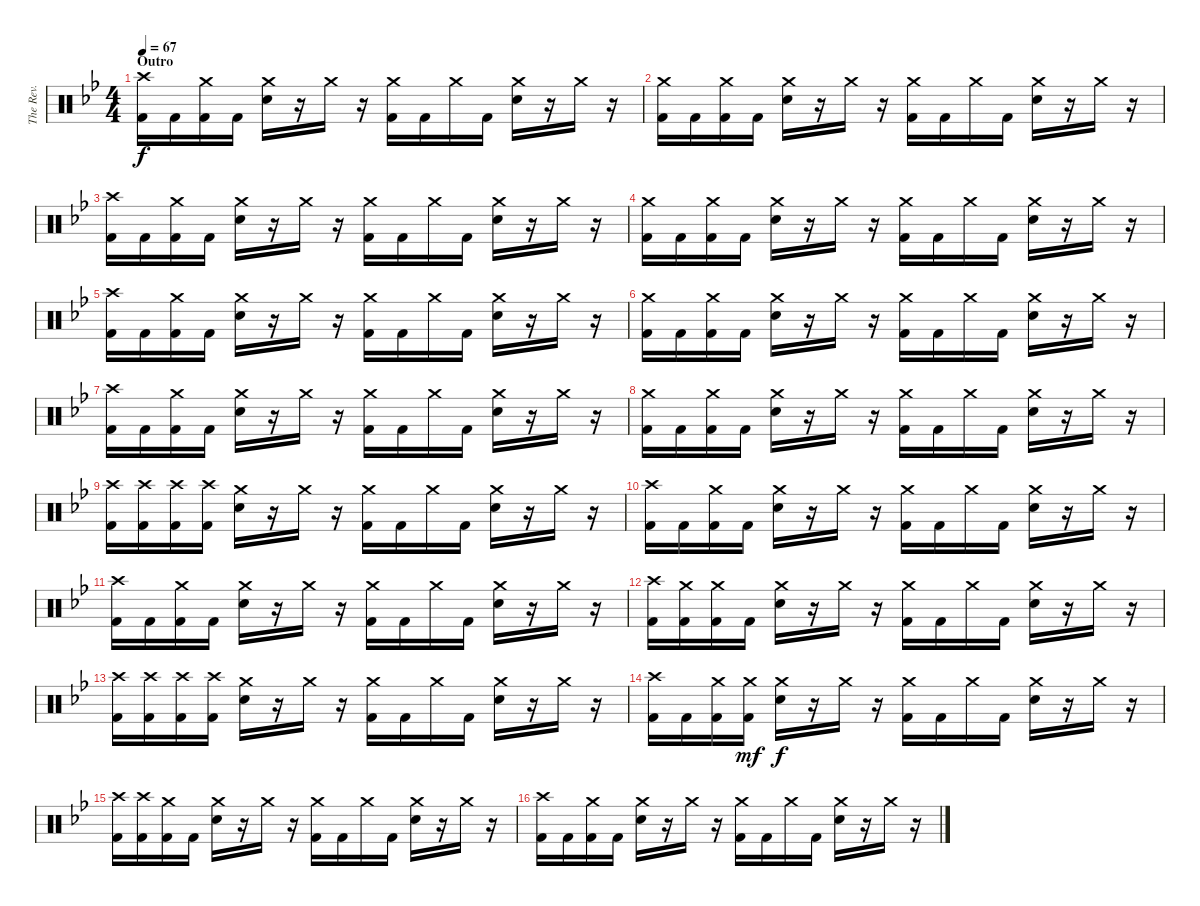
\track ("The Rev." "The Rev.") {instrument percussion}
\staff {score}
\articulation defaults
\ts (4 4)
\section ("" "Outro")
\tempo 67
\clef neutral
\ks bb
("Crash high (hit)" "Kick (hit) 2").16{dy f} "Kick (hit) 2".16 ("Crash medium (hit)" "Kick (hit) 2").16 "Kick (hit) 2".16 ("Crash medium (hit)" "Electric Snare (hit)").16 r.16 "Crash medium (hit)".16 r.16 ("Crash medium (hit)" "Kick (hit) 2").16 "Kick (hit) 2".16 "Crash medium (hit)".16 "Kick (hit) 2".16 ("Crash medium (hit)" "Electric Snare (hit)").16 r.16 "Crash medium (hit)".16 r.16 |
("Crash medium (hit)" "Kick (hit) 2").16 "Kick (hit) 2".16 ("Crash medium (hit)" "Kick (hit) 2").16 "Kick (hit) 2".16 ("Crash medium (hit)" "Electric Snare (hit)").16 r.16 "Crash medium (hit)".16 r.16 ("Crash medium (hit)" "Kick (hit) 2").16 "Kick (hit) 2".16 "Crash medium (hit)".16 "Kick (hit) 2".16 ("Crash medium (hit)" "Electric Snare (hit)").16 r.16 "Crash medium (hit)".16 r.16 |
("Crash high (hit)" "Kick (hit) 2").16 "Kick (hit) 2".16 ("Crash medium (hit)" "Kick (hit) 2").16 "Kick (hit) 2".16 ("Crash medium (hit)" "Electric Snare (hit)").16 r.16 "Crash medium (hit)".16 r.16 ("Crash medium (hit)" "Kick (hit) 2").16 "Kick (hit) 2".16 "Crash medium (hit)".16 "Kick (hit) 2".16 ("Crash medium (hit)" "Electric Snare (hit)").16 r.16 "Crash medium (hit)".16 r.16 |
("Crash medium (hit)" "Kick (hit) 2").16 "Kick (hit) 2".16 ("Crash medium (hit)" "Kick (hit) 2").16 "Kick (hit) 2".16 ("Crash medium (hit)" "Electric Snare (hit)").16 r.16 "Crash medium (hit)".16 r.16 ("Crash medium (hit)" "Kick (hit) 2").16 "Kick (hit) 2".16 "Crash medium (hit)".16 "Kick (hit) 2".16 ("Crash medium (hit)" "Electric Snare (hit)").16 r.16 "Crash medium (hit)".16 r.16 |
("Crash high (hit)" "Kick (hit) 2").16 "Kick (hit) 2".16 ("Crash medium (hit)" "Kick (hit) 2").16 "Kick (hit) 2".16 ("Crash medium (hit)" "Electric Snare (hit)").16 r.16 "Crash medium (hit)".16 r.16 ("Crash medium (hit)" "Kick (hit) 2").16 "Kick (hit) 2".16 "Crash medium (hit)".16 "Kick (hit) 2".16 ("Crash medium (hit)" "Electric Snare (hit)").16 r.16 "Crash medium (hit)".16 r.16 |
("Crash medium (hit)" "Kick (hit) 2").16 "Kick (hit) 2".16 ("Crash medium (hit)" "Kick (hit) 2").16 "Kick (hit) 2".16 ("Crash medium (hit)" "Electric Snare (hit)").16 r.16 "Crash medium (hit)".16 r.16 ("Crash medium (hit)" "Kick (hit) 2").16 "Kick (hit) 2".16 "Crash medium (hit)".16 "Kick (hit) 2".16 ("Crash medium (hit)" "Electric Snare (hit)").16 r.16 "Crash medium (hit)".16 r.16 |
("Crash high (hit)" "Kick (hit) 2").16 "Kick (hit) 2".16 ("Crash medium (hit)" "Kick (hit) 2").16 "Kick (hit) 2".16 ("Crash medium (hit)" "Electric Snare (hit)").16 r.16 "Crash medium (hit)".16 r.16 ("Crash medium (hit)" "Kick (hit) 2").16 "Kick (hit) 2".16 "Crash medium (hit)".16 "Kick (hit) 2".16 ("Crash medium (hit)" "Electric Snare (hit)").16 r.16 "Crash medium (hit)".16 r.16 |
("Crash medium (hit)" "Kick (hit) 2").16 "Kick (hit) 2".16 ("Crash medium (hit)" "Kick (hit) 2").16 "Kick (hit) 2".16 ("Crash medium (hit)" "Electric Snare (hit)").16 r.16 "Crash medium (hit)".16 r.16 ("Crash medium (hit)" "Kick (hit) 2").16 "Kick (hit) 2".16 "Crash medium (hit)".16 "Kick (hit) 2".16 ("Crash medium (hit)" "Electric Snare (hit)").16 r.16 "Crash medium (hit)".16 r.16 |
("Crash high (hit)" "Kick (hit) 2").16 ("Crash high (hit)" "Kick (hit) 2").16 ("Crash high (hit)" "Kick (hit) 2").16 ("Crash high (hit)" "Kick (hit) 2").16 ("Crash medium (hit)" "Electric Snare (hit)").16 r.16 "Crash medium (hit)".16 r.16 ("Crash medium (hit)" "Kick (hit) 2").16 "Kick (hit) 2".16 "Crash medium (hit)".16 "Kick (hit) 2".16 ("Crash medium (hit)" "Electric Snare (hit)").16 r.16 "Crash medium (hit)".16 r.16 |
("Crash high (hit)" "Kick (hit) 2").16 "Kick (hit) 2".16 ("Crash medium (hit)" "Kick (hit) 2").16 "Kick (hit) 2".16 ("Crash medium (hit)" "Electric Snare (hit)").16 r.16 "Crash medium (hit)".16 r.16 ("Crash medium (hit)" "Kick (hit) 2").16 "Kick (hit) 2".16 "Crash medium (hit)".16 "Kick (hit) 2".16 ("Crash medium (hit)" "Electric Snare (hit)").16 r.16 "Crash medium (hit)".16 r.16 |
("Crash high (hit)" "Kick (hit) 2").16 "Kick (hit) 2".16 ("Crash medium (hit)" "Kick (hit) 2").16 "Kick (hit) 2".16 ("Crash medium (hit)" "Electric Snare (hit)").16 r.16 "Crash medium (hit)".16 r.16 ("Crash medium (hit)" "Kick (hit) 2").16 "Kick (hit) 2".16 "Crash medium (hit)".16 "Kick (hit) 2".16 ("Crash medium (hit)" "Electric Snare (hit)").16 r.16 "Crash medium (hit)".16 r.16 |
("Crash high (hit)" "Kick (hit) 2").16 ("Crash medium (hit)" "Kick (hit) 2").16 ("Crash medium (hit)" "Kick (hit) 2").16 "Kick (hit) 2".16 ("Crash medium (hit)" "Electric Snare (hit)").16 r.16 "Crash medium (hit)".16 r.16 ("Crash medium (hit)" "Kick (hit) 2").16 "Kick (hit) 2".16 "Crash medium (hit)".16 "Kick (hit) 2".16 ("Crash medium (hit)" "Electric Snare (hit)").16 r.16 "Crash medium (hit)".16 r.16 |
("Crash high (hit)" "Kick (hit) 2").16 ("Crash high (hit)" "Kick (hit) 2").16 ("Crash high (hit)" "Kick (hit) 2").16 ("Crash high (hit)" "Kick (hit) 2").16 ("Crash medium (hit)" "Electric Snare (hit)").16 r.16 "Crash medium (hit)".16 r.16 ("Crash medium (hit)" "Kick (hit) 2").16 "Kick (hit) 2".16 "Crash medium (hit)".16 "Kick (hit) 2".16 ("Crash medium (hit)" "Electric Snare (hit)").16 r.16 "Crash medium (hit)".16 r.16 |
("Crash high (hit)" "Kick (hit) 2").16 "Kick (hit) 2".16 ("Crash medium (hit)" "Kick (hit) 2").16 ("Crash medium (hit)" "Kick (hit) 2").16{dy mf} ("Crash medium (hit)" "Electric Snare (hit)").16{dy f} r.16 "Crash medium (hit)".16 r.16 ("Crash medium (hit)" "Kick (hit) 2").16 "Kick (hit) 2".16 "Crash medium (hit)".16 "Kick (hit) 2".16 ("Crash medium (hit)" "Electric Snare (hit)").16 r.16 "Crash medium (hit)".16 r.16 |
("Crash high (hit)" "Kick (hit) 2").16 ("Crash high (hit)" "Kick (hit) 2").16 ("Crash medium (hit)" "Kick (hit) 2").16 "Kick (hit) 2".16 ("Crash medium (hit)" "Electric Snare (hit)").16 r.16 "Crash medium (hit)".16 r.16 ("Crash medium (hit)" "Kick (hit) 2").16 "Kick (hit) 2".16 "Crash medium (hit)".16 "Kick (hit) 2".16 ("Crash medium (hit)" "Electric Snare (hit)").16 r.16 "Crash medium (hit)".16 r.16 |
("Crash high (hit)" "Kick (hit) 2").16 "Kick (hit) 2".16 ("Crash medium (hit)" "Kick (hit) 2").16 "Kick (hit) 2".16 ("Crash medium (hit)" "Electric Snare (hit)").16 r.16 "Crash medium (hit)".16 r.16 ("Crash medium (hit)" "Kick (hit) 2").16 "Kick (hit) 2".16 "Crash medium (hit)".16 "Kick (hit) 2".16 ("Crash medium (hit)" "Electric Snare (hit)").16 r.16 "Crash medium (hit)".16 r.16
